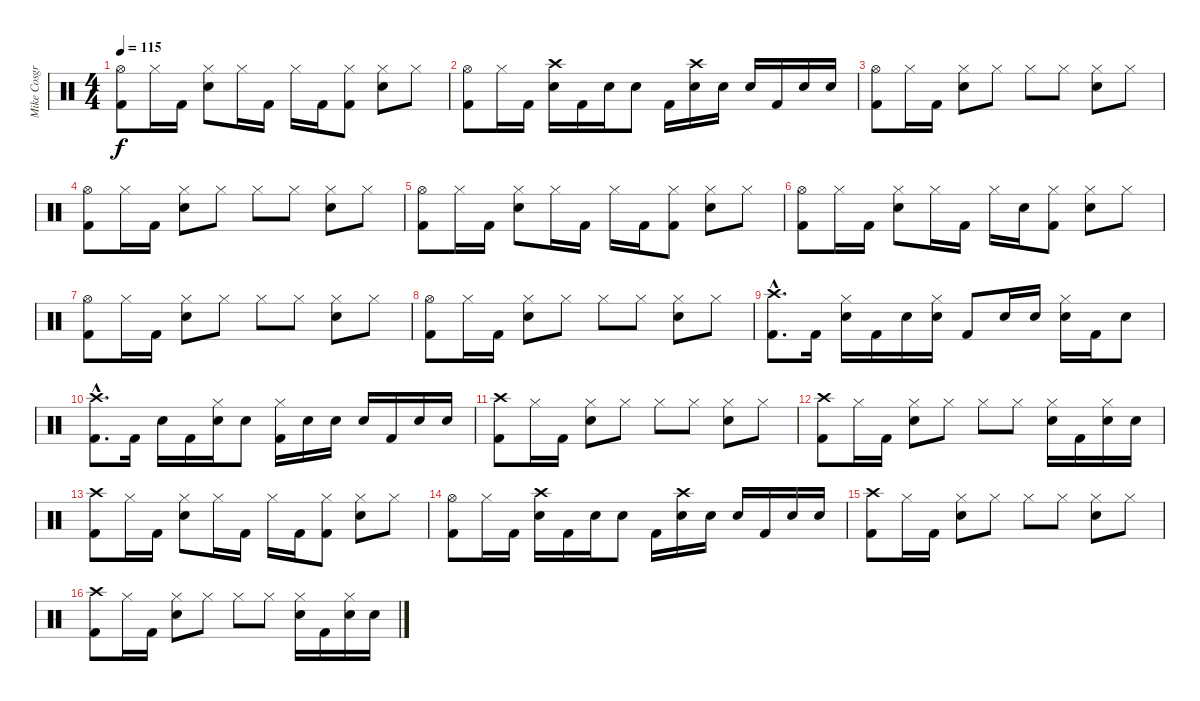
\track ("Mike Cosgrove" "Mike Cosgr") {instrument percussion}
\staff {score}
\articulation defaults
\ts (4 4)
\tempo 115
\clef neutral
\ks c
("Hi-Hat (open)" "Kick (hit) 2").8{dy f} "Hi-Hat (closed)".16 "Kick (hit) 2".16 ("Hi-Hat (closed)" "Electric Snare (hit)").8 "Hi-Hat (closed)".16 "Kick (hit) 2".16 "Hi-Hat (closed)".16 "Kick (hit) 2".16 ("Hi-Hat (closed)" "Kick (hit) 2").8 ("Hi-Hat (closed)" "Electric Snare (hit)").8 "Hi-Hat (closed)".8 |
("Hi-Hat (open)" "Kick (hit) 2").8 "Hi-Hat (closed)".16 "Kick (hit) 2".16 ("Crash high (hit)" "Electric Snare (hit)").16 "Kick (hit) 2".16 "Electric Snare (hit)".16 "Electric Snare (hit)".8 "Kick (hit) 2".16 ("Crash high (hit)" "Electric Snare (hit)").16 "Electric Snare (hit)".16 "Electric Snare (hit)".16 "Kick (hit) 2".16 "Electric Snare (hit)".16 "Electric Snare (hit)".16 |
("Hi-Hat (open)" "Kick (hit) 2").8 "Hi-Hat (closed)".16 "Kick (hit) 2".16 ("Hi-Hat (closed)" "Electric Snare (hit)").8 "Hi-Hat (closed)".8 "Hi-Hat (closed)".8 "Hi-Hat (closed)".8 ("Hi-Hat (closed)" "Electric Snare (hit)").8 "Hi-Hat (closed)".8 |
("Hi-Hat (open)" "Kick (hit) 2").8 "Hi-Hat (closed)".16 "Kick (hit) 2".16 ("Hi-Hat (closed)" "Electric Snare (hit)").8 "Hi-Hat (closed)".8 "Hi-Hat (closed)".8 "Hi-Hat (closed)".8 ("Hi-Hat (closed)" "Electric Snare (hit)").8 "Hi-Hat (closed)".8 |
("Hi-Hat (open)" "Kick (hit) 2").8 "Hi-Hat (closed)".16 "Kick (hit) 2".16 ("Hi-Hat (closed)" "Electric Snare (hit)").8 "Hi-Hat (closed)".16 "Kick (hit) 2".16 "Hi-Hat (closed)".16 "Kick (hit) 2".16 ("Hi-Hat (closed)" "Kick (hit) 2").8 ("Hi-Hat (closed)" "Electric Snare (hit)").8 "Hi-Hat (closed)".8 |
("Hi-Hat (open)" "Kick (hit) 2").8 "Hi-Hat (closed)".16 "Kick (hit) 2".16 ("Hi-Hat (closed)" "Electric Snare (hit)").8 "Hi-Hat (closed)".16 "Kick (hit) 2".16 "Hi-Hat (closed)".16 "Electric Snare (hit)".16 ("Hi-Hat (closed)" "Kick (hit) 2").8 ("Hi-Hat (closed)" "Electric Snare (hit)").8 "Hi-Hat (closed)".8 |
("Hi-Hat (open)" "Kick (hit) 2").8 "Hi-Hat (closed)".16 "Kick (hit) 2".16 ("Hi-Hat (closed)" "Electric Snare (hit)").8 "Hi-Hat (closed)".8 "Hi-Hat (closed)".8 "Hi-Hat (closed)".8 ("Hi-Hat (closed)" "Electric Snare (hit)").8 "Hi-Hat (closed)".8 |
("Hi-Hat (open)" "Kick (hit) 2").8 "Hi-Hat (closed)".16 "Kick (hit) 2".16 ("Hi-Hat (closed)" "Electric Snare (hit)").8 "Hi-Hat (closed)".8 "Hi-Hat (closed)".8 "Hi-Hat (closed)".8 ("Hi-Hat (closed)" "Electric Snare (hit)").8 "Hi-Hat (closed)".8 |
("Crash high (hit)"{hac} "Kick (hit) 2"{hac}).8{d} "Kick (hit) 2".16 ("Hi-Hat (closed)" "Electric Snare (hit)").16 "Kick (hit) 2".16 "Electric Snare (hit)".16 ("Hi-Hat (closed)" "Electric Snare (hit)").16 "Kick (hit) 2".8 "Electric Snare (hit)".16 "Electric Snare (hit)".16 ("Hi-Hat (closed)" "Electric Snare (hit)").16 "Kick (hit) 2".16 "Electric Snare (hit)".8 |
("Crash high (hit)"{hac} "Kick (hit) 2"{hac}).8{d} "Kick (hit) 2".16 "Electric Snare (hit)".16 "Kick (hit) 2".16 ("Hi-Hat (closed)" "Electric Snare (hit)").16 "Electric Snare (hit)".8 ("Hi-Hat (closed)" "Kick (hit) 2").16 "Electric Snare (hit)".16 "Electric Snare (hit)".16 "Electric Snare (hit)".16 "Kick (hit) 2".16 "Electric Snare (hit)".16 "Electric Snare (hit)".16 |
("Crash high (hit)" "Kick (hit) 2").8 "Hi-Hat (closed)".16 "Kick (hit) 2".16 ("Hi-Hat (closed)" "Electric Snare (hit)").8 "Hi-Hat (closed)".8 "Hi-Hat (closed)".8 "Hi-Hat (closed)".8 ("Hi-Hat (closed)" "Electric Snare (hit)").8 "Hi-Hat (closed)".8 |
("Crash high (hit)" "Kick (hit) 2").8 "Hi-Hat (closed)".16 "Kick (hit) 2".16 ("Hi-Hat (closed)" "Electric Snare (hit)").8 "Hi-Hat (closed)".8 "Hi-Hat (closed)".8 "Hi-Hat (closed)".8 ("Hi-Hat (closed)" "Electric Snare (hit)").16 "Kick (hit) 2".16 ("Hi-Hat (closed)" "Electric Snare (hit)").16 "Electric Snare (hit)".16 |
("Crash high (hit)" "Kick (hit) 2").8 "Hi-Hat (closed)".16 "Kick (hit) 2".16 ("Hi-Hat (closed)" "Electric Snare (hit)").8 "Hi-Hat (closed)".16 "Kick (hit) 2".16 "Hi-Hat (closed)".16 "Kick (hit) 2".16 ("Hi-Hat (closed)" "Kick (hit) 2").8 ("Hi-Hat (closed)" "Electric Snare (hit)").8 "Hi-Hat (closed)".8 |
("Hi-Hat (open)" "Kick (hit) 2").8 "Hi-Hat (closed)".16 "Kick (hit) 2".16 ("Crash high (hit)" "Electric Snare (hit)").16 "Kick (hit) 2".16 "Electric Snare (hit)".16 "Electric Snare (hit)".8 "Kick (hit) 2".16 ("Crash high (hit)" "Electric Snare (hit)").16 "Electric Snare (hit)".16 "Electric Snare (hit)".16 "Kick (hit) 2".16 "Electric Snare (hit)".16 "Electric Snare (hit)".16 |
("Crash high (hit)" "Kick (hit) 2").8 "Hi-Hat (closed)".16 "Kick (hit) 2".16 ("Hi-Hat (closed)" "Electric Snare (hit)").8 "Hi-Hat (closed)".8 "Hi-Hat (closed)".8 "Hi-Hat (closed)".8 ("Hi-Hat (closed)" "Electric Snare (hit)").8 "Hi-Hat (closed)".8 |
("Crash high (hit)" "Kick (hit) 2").8 "Hi-Hat (closed)".16 "Kick (hit) 2".16 ("Hi-Hat (closed)" "Electric Snare (hit)").8 "Hi-Hat (closed)".8 "Hi-Hat (closed)".8 "Hi-Hat (closed)".8 ("Hi-Hat (closed)" "Electric Snare (hit)").16 "Kick (hit) 2".16 ("Hi-Hat (closed)" "Electric Snare (hit)").16 "Electric Snare (hit)".16
